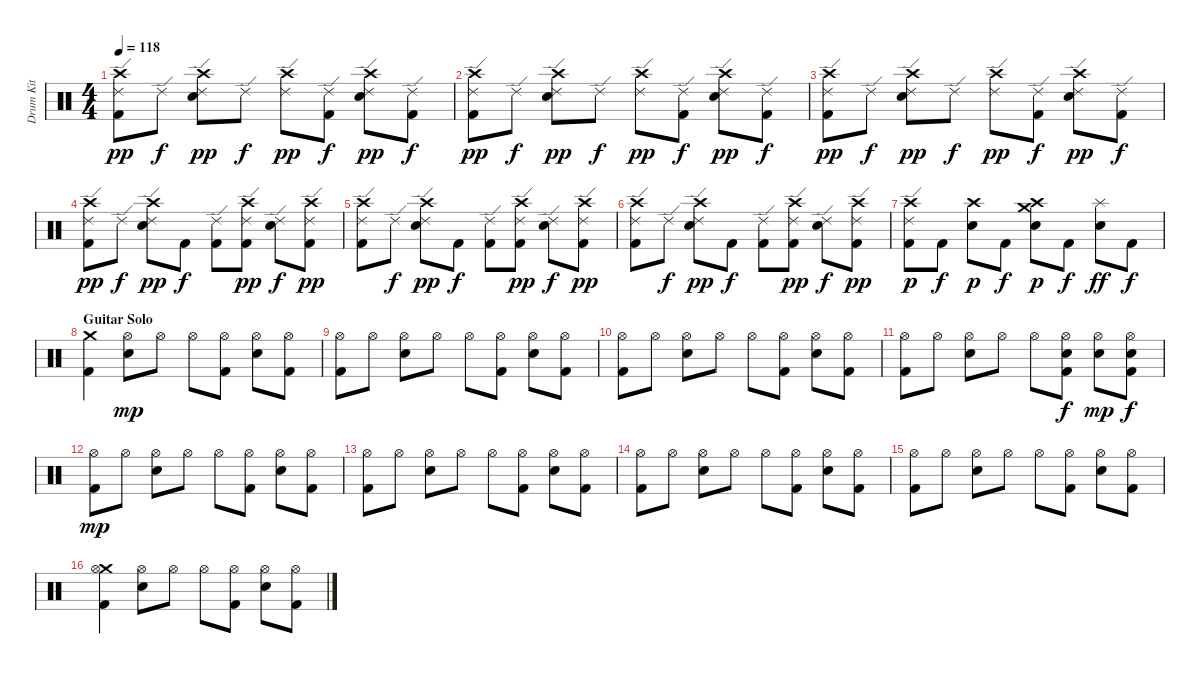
\track ("Drum Kit" "Drum Kit") {instrument percussion}
\staff {score}
\articulation defaults
\ts (4 4)
\tempo 118
\clef neutral
\ks c
("Crash high (hit)" "Ride (edge) 2" "Kick (hit) 2").8{dy pp} "Ride (edge) 2".8{dy f} ("Crash high (hit)" "Ride (edge) 2" "Electric Snare (hit)").8{dy pp} "Ride (edge) 2".8{dy f} ("Crash high (hit)" "Ride (edge) 2").8{dy pp} ("Ride (edge) 2" "Kick (hit) 2").8{dy f} ("Crash high (hit)" "Ride (edge) 2" "Electric Snare (hit)").8{dy pp} ("Ride (edge) 2" "Kick (hit) 2").8{dy f} |
("Crash high (hit)" "Ride (edge) 2" "Kick (hit) 2").8{dy pp} "Ride (edge) 2".8{dy f} ("Crash high (hit)" "Ride (edge) 2" "Electric Snare (hit)").8{dy pp} "Ride (edge) 2".8{dy f} ("Crash high (hit)" "Ride (edge) 2").8{dy pp} ("Ride (edge) 2" "Kick (hit) 2").8{dy f} ("Crash high (hit)" "Ride (edge) 2" "Electric Snare (hit)").8{dy pp} ("Ride (edge) 2" "Kick (hit) 2").8{dy f} |
("Crash high (hit)" "Ride (edge) 2" "Kick (hit) 2").8{dy pp} "Ride (edge) 2".8{dy f} ("Crash high (hit)" "Ride (edge) 2" "Electric Snare (hit)").8{dy pp} "Ride (edge) 2".8{dy f} ("Crash high (hit)" "Ride (edge) 2").8{dy pp} ("Ride (edge) 2" "Kick (hit) 2").8{dy f} ("Crash high (hit)" "Ride (edge) 2" "Electric Snare (hit)").8{dy pp} ("Ride (edge) 2" "Kick (hit) 2").8{dy f} |
("Crash high (hit)" "Ride (edge) 2" "Kick (hit) 2").8{dy pp} "Ride (edge) 2".8{dy f} ("Crash high (hit)" "Ride (edge) 2" "Electric Snare (hit)").8{dy pp} "Kick (hit) 2".8{dy f} ("Ride (edge) 2" "Kick (hit) 2").8 ("Crash high (hit)" "Ride (edge) 2" "Kick (hit) 2").8{dy pp} ("Ride (edge) 2" "Electric Snare (hit)").8{dy f} ("Crash high (hit)" "Ride (edge) 2" "Kick (hit) 2").8{dy pp} |
("Crash high (hit)" "Ride (edge) 2" "Kick (hit) 2").8 "Ride (edge) 2".8{dy f} ("Crash high (hit)" "Ride (edge) 2" "Electric Snare (hit)").8{dy pp} "Kick (hit) 2".8{dy f} ("Ride (edge) 2" "Kick (hit) 2").8 ("Crash high (hit)" "Ride (edge) 2" "Kick (hit) 2").8{dy pp} ("Ride (edge) 2" "Electric Snare (hit)").8{dy f} ("Crash high (hit)" "Ride (edge) 2" "Kick (hit) 2").8{dy pp} |
("Crash high (hit)" "Ride (edge) 2" "Kick (hit) 2").8 "Ride (edge) 2".8{dy f} ("Crash high (hit)" "Ride (edge) 2" "Electric Snare (hit)").8{dy pp} "Kick (hit) 2".8{dy f} ("Ride (edge) 2" "Kick (hit) 2").8 ("Crash high (hit)" "Ride (edge) 2" "Kick (hit) 2").8{dy pp} ("Ride (edge) 2" "Electric Snare (hit)").8{dy f} ("Crash high (hit)" "Ride (edge) 2" "Kick (hit) 2").8{dy pp} |
("Crash high (hit)" "Ride (edge) 2" "Kick (hit) 2").8{dy p} "Kick (hit) 2".8{dy f} ("Crash high (hit)" "Electric Snare (hit)").8{dy p} "Kick (hit) 2".8{dy f} ("Crash medium (hit)" "Crash high (hit)" "Electric Snare (hit)").8{dy p} "Kick (hit) 2".8{dy f} ("Splash (hit)" "Electric Snare (hit)").8{dy ff} "Kick (hit) 2".8{dy f} |
\section ("" "Guitar Solo")
("Crash medium (hit)" "Kick (hit) 2").4 ("Hi-Hat (open)" "Electric Snare (hit)").8{dy mp} "Hi-Hat (open)".8 "Hi-Hat (open)".8 ("Hi-Hat (open)" "Kick (hit) 2").8 ("Hi-Hat (open)" "Electric Snare (hit)").8 ("Hi-Hat (open)" "Kick (hit) 2").8 |
("Hi-Hat (open)" "Kick (hit) 2").8 "Hi-Hat (open)".8 ("Hi-Hat (open)" "Electric Snare (hit)").8 "Hi-Hat (open)".8 "Hi-Hat (open)".8 ("Hi-Hat (open)" "Kick (hit) 2").8 ("Hi-Hat (open)" "Electric Snare (hit)").8 ("Hi-Hat (open)" "Kick (hit) 2").8 |
("Hi-Hat (open)" "Kick (hit) 2").8 "Hi-Hat (open)".8 ("Hi-Hat (open)" "Electric Snare (hit)").8 "Hi-Hat (open)".8 "Hi-Hat (open)".8 ("Hi-Hat (open)" "Kick (hit) 2").8 ("Hi-Hat (open)" "Electric Snare (hit)").8 ("Hi-Hat (open)" "Kick (hit) 2").8 |
("Hi-Hat (open)" "Kick (hit) 2").8 "Hi-Hat (open)".8 ("Hi-Hat (open)" "Electric Snare (hit)").8 "Hi-Hat (open)".8 "Hi-Hat (open)".8 ("Snare (hit)"{x} "Hi-Hat (open)" "Kick (hit) 2").8{dy f} ("Hi-Hat (open)" "Electric Snare (hit)").8{dy mp} ("Snare (hit)"{x} "Hi-Hat (open)" "Kick (hit) 2").8{dy f} |
("Hi-Hat (open)" "Kick (hit) 2").8{dy mp} "Hi-Hat (open)".8 ("Hi-Hat (open)" "Electric Snare (hit)").8 "Hi-Hat (open)".8 "Hi-Hat (open)".8 ("Hi-Hat (open)" "Kick (hit) 2").8 ("Hi-Hat (open)" "Electric Snare (hit)").8 ("Hi-Hat (open)" "Kick (hit) 2").8 |
("Hi-Hat (open)" "Kick (hit) 2").8 "Hi-Hat (open)".8 ("Hi-Hat (open)" "Electric Snare (hit)").8 "Hi-Hat (open)".8 "Hi-Hat (open)".8 ("Hi-Hat (open)" "Kick (hit) 2").8 ("Hi-Hat (open)" "Electric Snare (hit)").8 ("Hi-Hat (open)" "Kick (hit) 2").8 |
("Hi-Hat (open)" "Kick (hit) 2").8 "Hi-Hat (open)".8 ("Hi-Hat (open)" "Electric Snare (hit)").8 "Hi-Hat (open)".8 "Hi-Hat (open)".8 ("Hi-Hat (open)" "Kick (hit) 2").8 ("Hi-Hat (open)" "Electric Snare (hit)").8 ("Hi-Hat (open)" "Kick (hit) 2").8 |
("Hi-Hat (open)" "Kick (hit) 2").8 "Hi-Hat (open)".8 ("Hi-Hat (open)" "Electric Snare (hit)").8 "Hi-Hat (open)".8 "Hi-Hat (open)".8 ("Hi-Hat (open)" "Kick (hit) 2").8 ("Hi-Hat (open)" "Electric Snare (hit)").8 ("Hi-Hat (open)" "Kick (hit) 2").8 |
("Crash medium (hit)" "Hi-Hat (open)" "Kick (hit) 2").4 ("Hi-Hat (open)" "Electric Snare (hit)").8 "Hi-Hat (open)".8 "Hi-Hat (open)".8 ("Hi-Hat (open)" "Kick (hit) 2").8 ("Hi-Hat (open)" "Electric Snare (hit)").8 ("Hi-Hat (open)" "Kick (hit) 2").8
